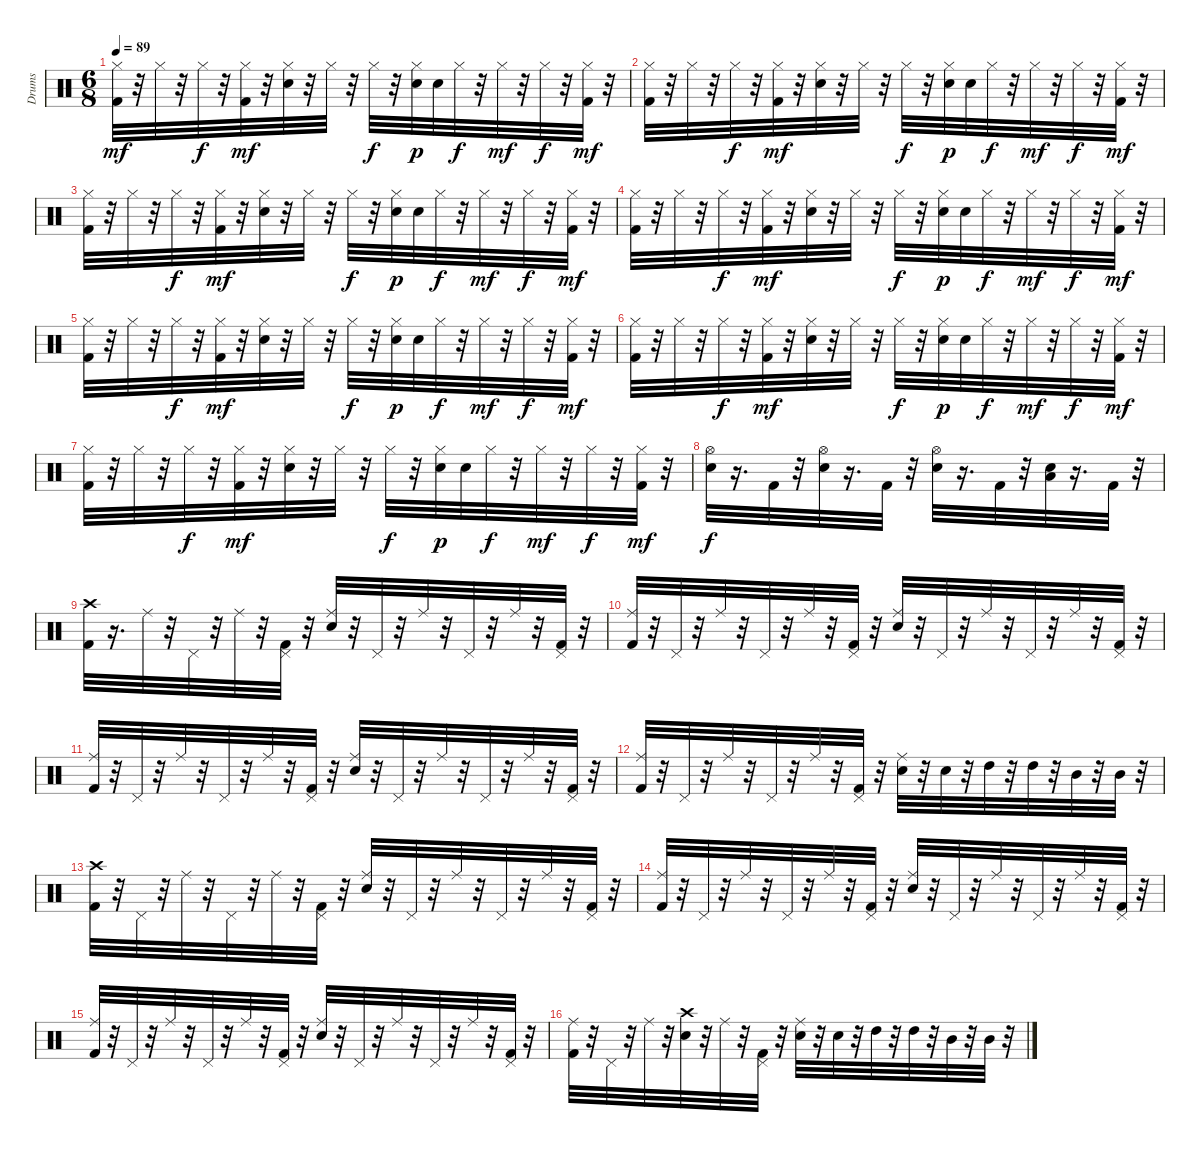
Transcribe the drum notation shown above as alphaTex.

\track ("Drums" "Drums") {instrument percussion}
\staff {score}
\articulation defaults
\ts (6 8)
\tempo 89
\clef neutral
\ks c
("Hi-Hat (closed)" "Kick (hit) 2").32{dy mf} r.32 "Hi-Hat (closed)".32 r.32 "Hi-Hat (closed)".32{dy f} r.32 ("Hi-Hat (closed)" "Kick (hit) 2").32{dy mf} r.32 ("Snare (hit) 2" "Hi-Hat (closed)").32 r.32 "Hi-Hat (closed)".32 r.32 "Hi-Hat (closed)".32{dy f} r.32 ("Hi-Hat (closed)" "Snare (hit) 2").32{dy p} "Snare (hit) 2".32 "Hi-Hat (closed)".32{dy f} r.32 "Hi-Hat (closed)".32{dy mf} r.32 "Hi-Hat (closed)".32{dy f} r.32 ("Hi-Hat (closed)" "Kick (hit) 2").32{dy mf} r.32 |
("Hi-Hat (closed)" "Kick (hit) 2").32 r.32 "Hi-Hat (closed)".32 r.32 "Hi-Hat (closed)".32{dy f} r.32 ("Hi-Hat (closed)" "Kick (hit) 2").32{dy mf} r.32 ("Snare (hit) 2" "Hi-Hat (closed)").32 r.32 "Hi-Hat (closed)".32 r.32 "Hi-Hat (closed)".32{dy f} r.32 ("Hi-Hat (closed)" "Snare (hit) 2").32{dy p} "Snare (hit) 2".32 "Hi-Hat (closed)".32{dy f} r.32 "Hi-Hat (closed)".32{dy mf} r.32 "Hi-Hat (closed)".32{dy f} r.32 ("Hi-Hat (closed)" "Kick (hit) 2").32{dy mf} r.32 |
("Hi-Hat (closed)" "Kick (hit) 2").32 r.32 "Hi-Hat (closed)".32 r.32 "Hi-Hat (closed)".32{dy f} r.32 ("Hi-Hat (closed)" "Kick (hit) 2").32{dy mf} r.32 ("Snare (hit) 2" "Hi-Hat (closed)").32 r.32 "Hi-Hat (closed)".32 r.32 "Hi-Hat (closed)".32{dy f} r.32 ("Hi-Hat (closed)" "Snare (hit) 2").32{dy p} "Snare (hit) 2".32 "Hi-Hat (closed)".32{dy f} r.32 "Hi-Hat (closed)".32{dy mf} r.32 "Hi-Hat (closed)".32{dy f} r.32 ("Hi-Hat (closed)" "Kick (hit) 2").32{dy mf} r.32 |
("Hi-Hat (closed)" "Kick (hit) 2").32 r.32 "Hi-Hat (closed)".32 r.32 "Hi-Hat (closed)".32{dy f} r.32 ("Hi-Hat (closed)" "Kick (hit) 2").32{dy mf} r.32 ("Snare (hit) 2" "Hi-Hat (closed)").32 r.32 "Hi-Hat (closed)".32 r.32 "Hi-Hat (closed)".32{dy f} r.32 ("Hi-Hat (closed)" "Snare (hit) 2").32{dy p} "Snare (hit) 2".32 "Hi-Hat (closed)".32{dy f} r.32 "Hi-Hat (closed)".32{dy mf} r.32 "Hi-Hat (closed)".32{dy f} r.32 ("Hi-Hat (closed)" "Kick (hit) 2").32{dy mf} r.32 |
("Hi-Hat (closed)" "Kick (hit) 2").32 r.32 "Hi-Hat (closed)".32 r.32 "Hi-Hat (closed)".32{dy f} r.32 ("Hi-Hat (closed)" "Kick (hit) 2").32{dy mf} r.32 ("Snare (hit) 2" "Hi-Hat (closed)").32 r.32 "Hi-Hat (closed)".32 r.32 "Hi-Hat (closed)".32{dy f} r.32 ("Hi-Hat (closed)" "Snare (hit) 2").32{dy p} "Snare (hit) 2".32 "Hi-Hat (closed)".32{dy f} r.32 "Hi-Hat (closed)".32{dy mf} r.32 "Hi-Hat (closed)".32{dy f} r.32 ("Hi-Hat (closed)" "Kick (hit) 2").32{dy mf} r.32 |
("Hi-Hat (closed)" "Kick (hit) 2").32 r.32 "Hi-Hat (closed)".32 r.32 "Hi-Hat (closed)".32{dy f} r.32 ("Hi-Hat (closed)" "Kick (hit) 2").32{dy mf} r.32 ("Snare (hit) 2" "Hi-Hat (closed)").32 r.32 "Hi-Hat (closed)".32 r.32 "Hi-Hat (closed)".32{dy f} r.32 ("Hi-Hat (closed)" "Snare (hit) 2").32{dy p} "Snare (hit) 2".32 "Hi-Hat (closed)".32{dy f} r.32 "Hi-Hat (closed)".32{dy mf} r.32 "Hi-Hat (closed)".32{dy f} r.32 ("Hi-Hat (closed)" "Kick (hit) 2").32{dy mf} r.32 |
("Hi-Hat (closed)" "Kick (hit) 2").32 r.32 "Hi-Hat (closed)".32 r.32 "Hi-Hat (closed)".32{dy f} r.32 ("Hi-Hat (closed)" "Kick (hit) 2").32{dy mf} r.32 ("Hi-Hat (closed)" "Snare (hit) 2").32 r.32 "Hi-Hat (closed)".32 r.32 "Hi-Hat (closed)".32{dy f} r.32 ("Hi-Hat (closed)" "Snare (hit) 2").32{dy p} "Snare (hit) 2".32 "Hi-Hat (closed)".32{dy f} r.32 "Hi-Hat (closed)".32{dy mf} r.32 "Hi-Hat (closed)".32{dy f} r.32 ("Hi-Hat (closed)" "Kick (hit) 2").32{dy mf} r.32 |
("Hi-Hat (open)" "Snare (hit) 2").32{dy f} r.16{d} "Kick (hit) 2".32 r.32 ("Hi-Hat (open)" "Snare (hit) 2").32 r.16{d} "Kick (hit) 2".32 r.32 ("Hi-Hat (open)" "Snare (hit) 2").32 r.16{d} "Kick (hit) 2".32 r.32 ("Low Tom (hit)" "Snare (hit) 2").32 r.16{d} "Kick (hit) 2".32 r.32 |
("Kick (hit) 2" "Crash high (hit)").32 r.16{d} "Ride (middle)".32 r.32 "Pedal Hi-Hat (hit)".32 r.32 "Ride (middle)".32 r.32 ("Kick (hit) 2" "Pedal Hi-Hat (hit)").32 r.32 ("Snare (hit) 2" "Ride (middle)").32 r.32 "Pedal Hi-Hat (hit)".32 r.32 "Ride (middle)".32 r.32 "Pedal Hi-Hat (hit)".32 r.32 "Ride (middle)".32 r.32 ("Pedal Hi-Hat (hit)" "Kick (hit) 2").32 r.32 |
("Ride (middle)" "Kick (hit) 2").32 r.32 "Pedal Hi-Hat (hit)".32 r.32 "Ride (middle)".32 r.32 "Pedal Hi-Hat (hit)".32 r.32 "Ride (middle)".32 r.32 ("Kick (hit) 2" "Pedal Hi-Hat (hit)").32 r.32 ("Snare (hit) 2" "Ride (middle)").32 r.32 "Pedal Hi-Hat (hit)".32 r.32 "Ride (middle)".32 r.32 "Pedal Hi-Hat (hit)".32 r.32 "Ride (middle)".32 r.32 ("Kick (hit) 2" "Pedal Hi-Hat (hit)").32 r.32 |
("Ride (middle)" "Kick (hit) 2").32 r.32 "Pedal Hi-Hat (hit)".32 r.32 "Ride (middle)".32 r.32 "Pedal Hi-Hat (hit)".32 r.32 "Ride (middle)".32 r.32 ("Kick (hit) 2" "Pedal Hi-Hat (hit)").32 r.32 ("Snare (hit) 2" "Ride (middle)").32 r.32 "Pedal Hi-Hat (hit)".32 r.32 "Ride (middle)".32 r.32 "Pedal Hi-Hat (hit)".32 r.32 "Ride (middle)".32 r.32 ("Kick (hit) 2" "Pedal Hi-Hat (hit)").32 r.32 |
("Ride (middle)" "Kick (hit) 2").32 r.32 "Pedal Hi-Hat (hit)".32 r.32 "Ride (middle)".32 r.32 "Pedal Hi-Hat (hit)".32 r.32 "Ride (middle)".32 r.32 ("Kick (hit) 2" "Pedal Hi-Hat (hit)").32 r.32 ("Snare (hit) 2" "Ride (middle)").32 r.32 "Snare (hit) 2".32 r.32 "High Tom (hit)".32 r.32 "High Tom (hit)".32 r.32 "Mid Tom (hit)".32 r.32 "Mid Tom (hit)".32 r.32 |
("Kick (hit) 2" "Crash high (hit)").32 r.32 "Pedal Hi-Hat (hit)".32 r.32 "Ride (middle)".32 r.32 "Pedal Hi-Hat (hit)".32 r.32 "Ride (middle)".32 r.32 ("Pedal Hi-Hat (hit)" "Kick (hit) 2").32 r.32 ("Ride (middle)" "Snare (hit) 2").32 r.32 "Pedal Hi-Hat (hit)".32 r.32 "Ride (middle)".32 r.32 "Pedal Hi-Hat (hit)".32 r.32 "Ride (middle)".32 r.32 ("Pedal Hi-Hat (hit)" "Kick (hit) 2").32 r.32 |
("Ride (middle)" "Kick (hit) 2").32 r.32 "Pedal Hi-Hat (hit)".32 r.32 "Ride (middle)".32 r.32 "Pedal Hi-Hat (hit)".32 r.32 "Ride (middle)".32 r.32 ("Kick (hit) 2" "Pedal Hi-Hat (hit)").32 r.32 ("Snare (hit) 2" "Ride (middle)").32 r.32 "Pedal Hi-Hat (hit)".32 r.32 "Ride (middle)".32 r.32 "Pedal Hi-Hat (hit)".32 r.32 "Ride (middle)".32 r.32 ("Kick (hit) 2" "Pedal Hi-Hat (hit)").32 r.32 |
("Ride (middle)" "Kick (hit) 2").32 r.32 "Pedal Hi-Hat (hit)".32 r.32 "Ride (middle)".32 r.32 "Pedal Hi-Hat (hit)".32 r.32 "Ride (middle)".32 r.32 ("Kick (hit) 2" "Pedal Hi-Hat (hit)").32 r.32 ("Snare (hit) 2" "Ride (middle)").32 r.32 "Pedal Hi-Hat (hit)".32 r.32 "Ride (middle)".32 r.32 "Pedal Hi-Hat (hit)".32 r.32 "Ride (middle)".32 r.32 ("Kick (hit) 2" "Pedal Hi-Hat (hit)").32 r.32 |
("Kick (hit) 2" "Ride (middle)").32 r.32 "Pedal Hi-Hat (hit)".32 r.32 "Ride (middle)".32 r.32 ("Snare (hit) 2" "Crash high (hit)").32 r.32 "Ride (middle)".32 r.32 ("Kick (hit) 2" "Pedal Hi-Hat (hit)").32 r.32 ("Ride (middle)" "Snare (hit) 2").32 r.32 "Snare (hit) 2".32 r.32 "High Tom (hit)".32 r.32 "High Tom (hit)".32 r.32 "Mid Tom (hit)".32 r.32 "Mid Tom (hit)".32 r.32
